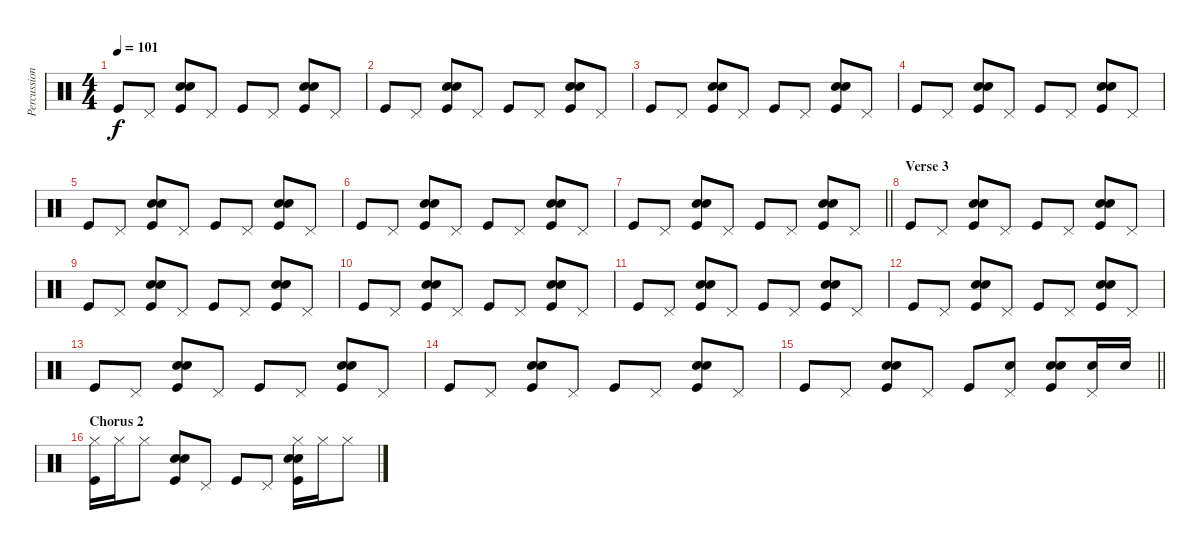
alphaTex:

\track ("Percussion" "Percussion") {instrument percussion}
\staff {score}
\articulation defaults
\ts (4 4)
\tempo 101
\clef neutral
\ks c "Kick (hit)".8{dy f} "Pedal Hi-Hat (hit)".8
("Kick (hit)" "Snare (hit) 2" "Electric Snare (hit)").8 "Pedal Hi-Hat (hit)".8 "Kick (hit)".8 "Pedal Hi-Hat (hit)".8 ("Kick (hit)" "Snare (hit) 2" "Electric Snare (hit)").8 "Pedal Hi-Hat (hit)".8 |
"Kick (hit)".8 "Pedal Hi-Hat (hit)".8 ("Kick (hit)" "Snare (hit) 2" "Electric Snare (hit)").8 "Pedal Hi-Hat (hit)".8 "Kick (hit)".8 "Pedal Hi-Hat (hit)".8 ("Kick (hit)" "Snare (hit) 2" "Electric Snare (hit)").8 "Pedal Hi-Hat (hit)".8 |
"Kick (hit)".8 "Pedal Hi-Hat (hit)".8 ("Kick (hit)" "Snare (hit) 2" "Electric Snare (hit)").8 "Pedal Hi-Hat (hit)".8 "Kick (hit)".8 "Pedal Hi-Hat (hit)".8 ("Kick (hit)" "Snare (hit) 2" "Electric Snare (hit)").8 "Pedal Hi-Hat (hit)".8 |
"Kick (hit)".8 "Pedal Hi-Hat (hit)".8 ("Kick (hit)" "Snare (hit) 2" "Electric Snare (hit)").8 "Pedal Hi-Hat (hit)".8 "Kick (hit)".8 "Pedal Hi-Hat (hit)".8 ("Kick (hit)" "Snare (hit) 2" "Electric Snare (hit)").8 "Pedal Hi-Hat (hit)".8 |
"Kick (hit)".8 "Pedal Hi-Hat (hit)".8 ("Kick (hit)" "Snare (hit) 2" "Electric Snare (hit)").8 "Pedal Hi-Hat (hit)".8 "Kick (hit)".8 "Pedal Hi-Hat (hit)".8 ("Kick (hit)" "Snare (hit) 2" "Electric Snare (hit)").8 "Pedal Hi-Hat (hit)".8 |
"Kick (hit)".8 "Pedal Hi-Hat (hit)".8 ("Kick (hit)" "Snare (hit) 2" "Electric Snare (hit)").8 "Pedal Hi-Hat (hit)".8 "Kick (hit)".8 "Pedal Hi-Hat (hit)".8 ("Kick (hit)" "Snare (hit) 2" "Electric Snare (hit)").8 "Pedal Hi-Hat (hit)".8 |
\barLineRight lightlight "Kick (hit)".8 "Pedal Hi-Hat (hit)".8
("Kick (hit)" "Snare (hit) 2" "Electric Snare (hit)").8 "Pedal Hi-Hat (hit)".8 "Kick (hit)".8 "Pedal Hi-Hat (hit)".8 ("Kick (hit)" "Snare (hit) 2" "Electric Snare (hit)").8 "Pedal Hi-Hat (hit)".8 |
\section ("" "Verse 3")
"Kick (hit)".8 "Pedal Hi-Hat (hit)".8 ("Kick (hit)" "Snare (hit) 2" "Electric Snare (hit)").8 "Pedal Hi-Hat (hit)".8 "Kick (hit)".8 "Pedal Hi-Hat (hit)".8 ("Kick (hit)" "Snare (hit) 2" "Electric Snare (hit)").8 "Pedal Hi-Hat (hit)".8 |
"Kick (hit)".8 "Pedal Hi-Hat (hit)".8 ("Kick (hit)" "Snare (hit) 2" "Electric Snare (hit)").8 "Pedal Hi-Hat (hit)".8 "Kick (hit)".8 "Pedal Hi-Hat (hit)".8 ("Kick (hit)" "Snare (hit) 2" "Electric Snare (hit)").8 "Pedal Hi-Hat (hit)".8 |
"Kick (hit)".8 "Pedal Hi-Hat (hit)".8 ("Kick (hit)" "Snare (hit) 2" "Electric Snare (hit)").8 "Pedal Hi-Hat (hit)".8 "Kick (hit)".8 "Pedal Hi-Hat (hit)".8 ("Kick (hit)" "Snare (hit) 2" "Electric Snare (hit)").8 "Pedal Hi-Hat (hit)".8 |
"Kick (hit)".8 "Pedal Hi-Hat (hit)".8 ("Kick (hit)" "Snare (hit) 2" "Electric Snare (hit)").8 "Pedal Hi-Hat (hit)".8 "Kick (hit)".8 "Pedal Hi-Hat (hit)".8 ("Kick (hit)" "Snare (hit) 2" "Electric Snare (hit)").8 "Pedal Hi-Hat (hit)".8 |
"Kick (hit)".8 "Pedal Hi-Hat (hit)".8 ("Kick (hit)" "Snare (hit) 2" "Electric Snare (hit)").8 "Pedal Hi-Hat (hit)".8 "Kick (hit)".8 "Pedal Hi-Hat (hit)".8 ("Kick (hit)" "Snare (hit) 2" "Electric Snare (hit)").8 "Pedal Hi-Hat (hit)".8 |
"Kick (hit)".8 "Pedal Hi-Hat (hit)".8 ("Kick (hit)" "Snare (hit) 2" "Electric Snare (hit)").8 "Pedal Hi-Hat (hit)".8 "Kick (hit)".8 "Pedal Hi-Hat (hit)".8 ("Kick (hit)" "Snare (hit) 2" "Electric Snare (hit)").8 "Pedal Hi-Hat (hit)".8 |
"Kick (hit)".8 "Pedal Hi-Hat (hit)".8 ("Kick (hit)" "Snare (hit) 2" "Electric Snare (hit)").8 "Pedal Hi-Hat (hit)".8 "Kick (hit)".8 "Pedal Hi-Hat (hit)".8 ("Kick (hit)" "Snare (hit) 2" "Electric Snare (hit)").8 "Pedal Hi-Hat (hit)".8 |
\barLineRight lightlight "Kick (hit)".8 "Pedal Hi-Hat (hit)".8
("Kick (hit)" "Snare (hit) 2" "Electric Snare (hit)").8 "Pedal Hi-Hat (hit)".8 "Kick (hit)".8 ("Electric Snare (hit)" "Pedal Hi-Hat (hit)").8 ("Kick (hit)" "Snare (hit) 2" "Electric Snare (hit)").8 ("Electric Snare (hit)" "Pedal Hi-Hat (hit)").16 "Electric Snare (hit)".16 |
\section ("" "Chorus 2")
("Kick (hit)" "Hi-Hat (closed)").16 "Hi-Hat (closed)".16 "Hi-Hat (closed)".8 ("Kick (hit)" "Snare (hit) 2" "Electric Snare (hit)").8 "Pedal Hi-Hat (hit)".8 "Kick (hit)".8 "Pedal Hi-Hat (hit)".8 ("Kick (hit)" "Snare (hit) 2" "Electric Snare (hit)" "Hi-Hat (closed)").16 "Hi-Hat (closed)".16 "Hi-Hat (closed)".8
